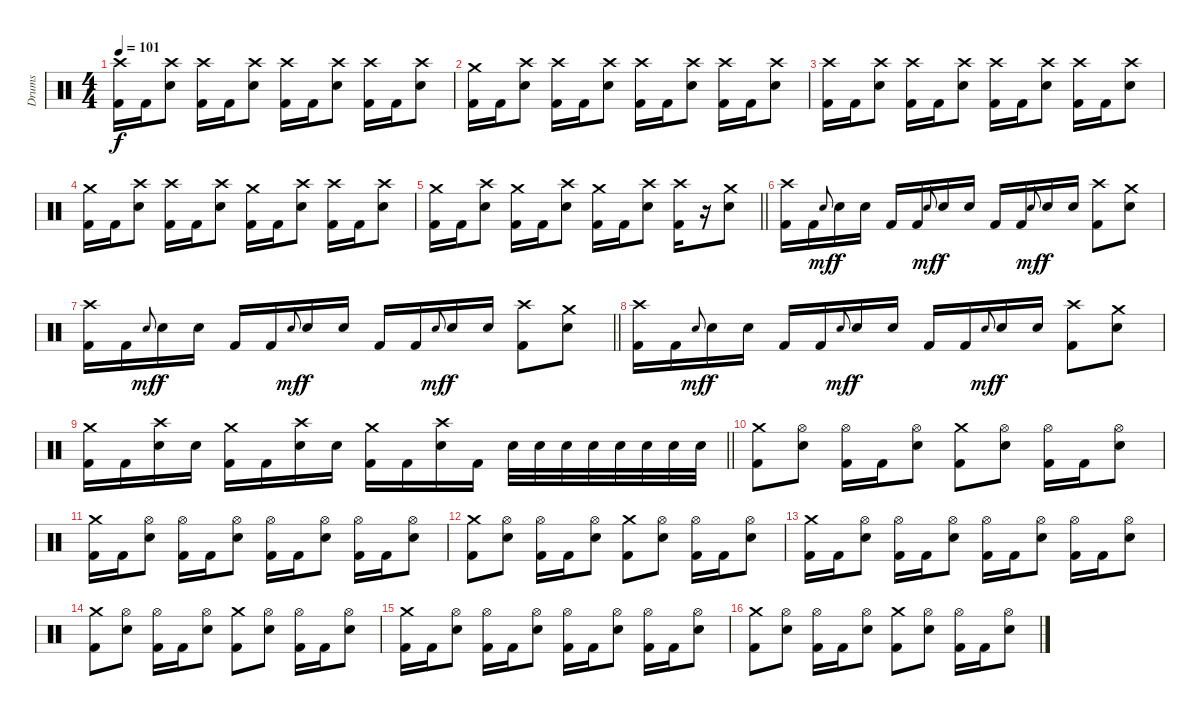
\track ("Drums" "Drums") {instrument percussion}
\staff {score}
\articulation defaults
\ts (4 4)
\tempo 101
\clef neutral
\ks c
("Crash high (hit)" "Kick (hit) 2").16{dy f} "Kick (hit) 2".16 ("Crash high (hit)" "Electric Snare (hit)").8 ("Crash high (hit)" "Kick (hit) 2").16 "Kick (hit) 2".16 ("Crash high (hit)" "Electric Snare (hit)").8 ("Crash high (hit)" "Kick (hit) 2").16 "Kick (hit) 2".16 ("Crash high (hit)" "Electric Snare (hit)").8 ("Crash high (hit)" "Kick (hit) 2").16 "Kick (hit) 2".16 ("Crash high (hit)" "Electric Snare (hit)").8 |
("Crash medium (hit)" "Kick (hit) 2").16 "Kick (hit) 2".16 ("Crash high (hit)" "Electric Snare (hit)").8 ("Crash high (hit)" "Kick (hit) 2").16 "Kick (hit) 2".16 ("Crash high (hit)" "Electric Snare (hit)").8 ("Crash high (hit)" "Kick (hit) 2").16 "Kick (hit) 2".16 ("Crash high (hit)" "Electric Snare (hit)").8 ("Crash high (hit)" "Kick (hit) 2").16 "Kick (hit) 2".16 ("Crash high (hit)" "Electric Snare (hit)").8 |
("Crash high (hit)" "Kick (hit) 2").16 "Kick (hit) 2".16 ("Crash high (hit)" "Electric Snare (hit)").8 ("Crash high (hit)" "Kick (hit) 2").16 "Kick (hit) 2".16 ("Crash high (hit)" "Electric Snare (hit)").8 ("Crash high (hit)" "Kick (hit) 2").16 "Kick (hit) 2".16 ("Crash high (hit)" "Electric Snare (hit)").8 ("Crash high (hit)" "Kick (hit) 2").16 "Kick (hit) 2".16 ("Crash high (hit)" "Electric Snare (hit)").8 |
("Crash medium (hit)" "Kick (hit) 2").16 "Kick (hit) 2".16 ("Crash high (hit)" "Electric Snare (hit)").8 ("Crash high (hit)" "Kick (hit) 2").16 "Kick (hit) 2".16 ("Crash high (hit)" "Electric Snare (hit)").8 ("Crash medium (hit)" "Kick (hit) 2").16 "Kick (hit) 2".16 ("Crash high (hit)" "Electric Snare (hit)").8 ("Crash high (hit)" "Kick (hit) 2").16 "Kick (hit) 2".16 ("Crash high (hit)" "Electric Snare (hit)").8 |
\barLineRight lightlight
("Crash medium (hit)" "Kick (hit) 2").16 "Kick (hit) 2".16 ("Crash high (hit)" "Electric Snare (hit)").8 ("Crash medium (hit)" "Kick (hit) 2").16 "Kick (hit) 2".16 ("Crash high (hit)" "Electric Snare (hit)").8 ("Crash medium (hit)" "Kick (hit) 2").16 "Kick (hit) 2".16 ("Crash high (hit)" "Electric Snare (hit)").8 ("Crash high (hit)" "Kick (hit) 2").16 r.16 ("Crash medium (hit)" "Electric Snare (hit)").8 |
("Crash high (hit)" "Kick (hit) 2").16 "Kick (hit) 2".16 "Electric Snare (hit)".8{gr onbeat dy mf} "Electric Snare (hit)".16{dy f} "Electric Snare (hit)".16 "Kick (hit) 2".16 "Kick (hit) 2".16 "Electric Snare (hit)".8{gr onbeat dy mf} "Electric Snare (hit)".16{dy f} "Electric Snare (hit)".16 "Kick (hit) 2".16 "Kick (hit) 2".16 "Electric Snare (hit)".8{gr onbeat dy mf} "Electric Snare (hit)".16{dy f} "Electric Snare (hit)".16 ("Crash high (hit)" "Kick (hit) 2").8 ("Crash medium (hit)" "Electric Snare (hit)").8 |
\barLineRight lightlight
("Crash high (hit)" "Kick (hit) 2").16 "Kick (hit) 2".16 "Electric Snare (hit)".8{gr onbeat dy mf} "Electric Snare (hit)".16{dy f} "Electric Snare (hit)".16 "Kick (hit) 2".16 "Kick (hit) 2".16 "Electric Snare (hit)".8{gr onbeat dy mf} "Electric Snare (hit)".16{dy f} "Electric Snare (hit)".16 "Kick (hit) 2".16 "Kick (hit) 2".16 "Electric Snare (hit)".8{gr onbeat dy mf} "Electric Snare (hit)".16{dy f} "Electric Snare (hit)".16 ("Crash high (hit)" "Kick (hit) 2").8 ("Crash medium (hit)" "Electric Snare (hit)").8 |
("Crash high (hit)" "Kick (hit) 2").16 "Kick (hit) 2".16 "Electric Snare (hit)".8{gr onbeat dy mf} "Electric Snare (hit)".16{dy f} "Electric Snare (hit)".16 "Kick (hit) 2".16 "Kick (hit) 2".16 "Electric Snare (hit)".8{gr onbeat dy mf} "Electric Snare (hit)".16{dy f} "Electric Snare (hit)".16 "Kick (hit) 2".16 "Kick (hit) 2".16 "Electric Snare (hit)".8{gr onbeat dy mf} "Electric Snare (hit)".16{dy f} "Electric Snare (hit)".16 ("Crash high (hit)" "Kick (hit) 2").8 ("Crash medium (hit)" "Electric Snare (hit)").8 |
\barLineRight lightlight
("Crash medium (hit)" "Kick (hit) 2").16 "Kick (hit) 2".16 ("Crash high (hit)" "Electric Snare (hit)").16 "Electric Snare (hit)".16 ("Crash medium (hit)" "Kick (hit) 2").16 "Kick (hit) 2".16 ("Crash high (hit)" "Electric Snare (hit)").16 "Electric Snare (hit)".16 ("Crash medium (hit)" "Kick (hit) 2").16 "Kick (hit) 2".16 ("Crash high (hit)" "Electric Snare (hit)").16 "Kick (hit) 2".16 "Electric Snare (hit)".32 "Electric Snare (hit)".32 "Electric Snare (hit)".32 "Electric Snare (hit)".32 "Electric Snare (hit)".32 "Electric Snare (hit)".32 "Electric Snare (hit)".32 "Electric Snare (hit)".32 |
("Crash medium (hit)" "Kick (hit) 2").8 ("Hi-Hat (open)" "Electric Snare (hit)").8 ("Hi-Hat (open)" "Kick (hit) 2").16 "Kick (hit) 2".16 ("Hi-Hat (open)" "Electric Snare (hit)").8 ("Crash medium (hit)" "Kick (hit) 2").8 ("Hi-Hat (open)" "Electric Snare (hit)").8 ("Hi-Hat (open)" "Kick (hit) 2").16 "Kick (hit) 2".16 ("Hi-Hat (open)" "Electric Snare (hit)").8 |
("Crash medium (hit)" "Kick (hit) 2").16 "Kick (hit) 2".16 ("Hi-Hat (open)" "Electric Snare (hit)").8 ("Hi-Hat (open)" "Kick (hit) 2").16 "Kick (hit) 2".16 ("Hi-Hat (open)" "Electric Snare (hit)").8 ("Hi-Hat (open)" "Kick (hit) 2").16 "Kick (hit) 2".16 ("Hi-Hat (open)" "Electric Snare (hit)").8 ("Hi-Hat (open)" "Kick (hit) 2").16 "Kick (hit) 2".16 ("Hi-Hat (open)" "Electric Snare (hit)").8 |
("Crash medium (hit)" "Kick (hit) 2").8 ("Hi-Hat (open)" "Electric Snare (hit)").8 ("Hi-Hat (open)" "Kick (hit) 2").16 "Kick (hit) 2".16 ("Hi-Hat (open)" "Electric Snare (hit)").8 ("Crash medium (hit)" "Kick (hit) 2").8 ("Hi-Hat (open)" "Electric Snare (hit)").8 ("Hi-Hat (open)" "Kick (hit) 2").16 "Kick (hit) 2".16 ("Hi-Hat (open)" "Electric Snare (hit)").8 |
("Crash medium (hit)" "Kick (hit) 2").16 "Kick (hit) 2".16 ("Hi-Hat (open)" "Electric Snare (hit)").8 ("Hi-Hat (open)" "Kick (hit) 2").16 "Kick (hit) 2".16 ("Hi-Hat (open)" "Electric Snare (hit)").8 ("Hi-Hat (open)" "Kick (hit) 2").16 "Kick (hit) 2".16 ("Hi-Hat (open)" "Electric Snare (hit)").8 ("Hi-Hat (open)" "Kick (hit) 2").16 "Kick (hit) 2".16 ("Hi-Hat (open)" "Electric Snare (hit)").8 |
("Crash medium (hit)" "Kick (hit) 2").8 ("Hi-Hat (open)" "Electric Snare (hit)").8 ("Hi-Hat (open)" "Kick (hit) 2").16 "Kick (hit) 2".16 ("Hi-Hat (open)" "Electric Snare (hit)").8 ("Crash medium (hit)" "Kick (hit) 2").8 ("Hi-Hat (open)" "Electric Snare (hit)").8 ("Hi-Hat (open)" "Kick (hit) 2").16 "Kick (hit) 2".16 ("Hi-Hat (open)" "Electric Snare (hit)").8 |
("Crash medium (hit)" "Kick (hit) 2").16 "Kick (hit) 2".16 ("Hi-Hat (open)" "Electric Snare (hit)").8 ("Hi-Hat (open)" "Kick (hit) 2").16 "Kick (hit) 2".16 ("Hi-Hat (open)" "Electric Snare (hit)").8 ("Hi-Hat (open)" "Kick (hit) 2").16 "Kick (hit) 2".16 ("Hi-Hat (open)" "Electric Snare (hit)").8 ("Hi-Hat (open)" "Kick (hit) 2").16 "Kick (hit) 2".16 ("Hi-Hat (open)" "Electric Snare (hit)").8 |
("Crash medium (hit)" "Kick (hit) 2").8 ("Hi-Hat (open)" "Electric Snare (hit)").8 ("Hi-Hat (open)" "Kick (hit) 2").16 "Kick (hit) 2".16 ("Hi-Hat (open)" "Electric Snare (hit)").8 ("Crash medium (hit)" "Kick (hit) 2").8 ("Hi-Hat (open)" "Electric Snare (hit)").8 ("Hi-Hat (open)" "Kick (hit) 2").16 "Kick (hit) 2".16 ("Hi-Hat (open)" "Electric Snare (hit)").8
